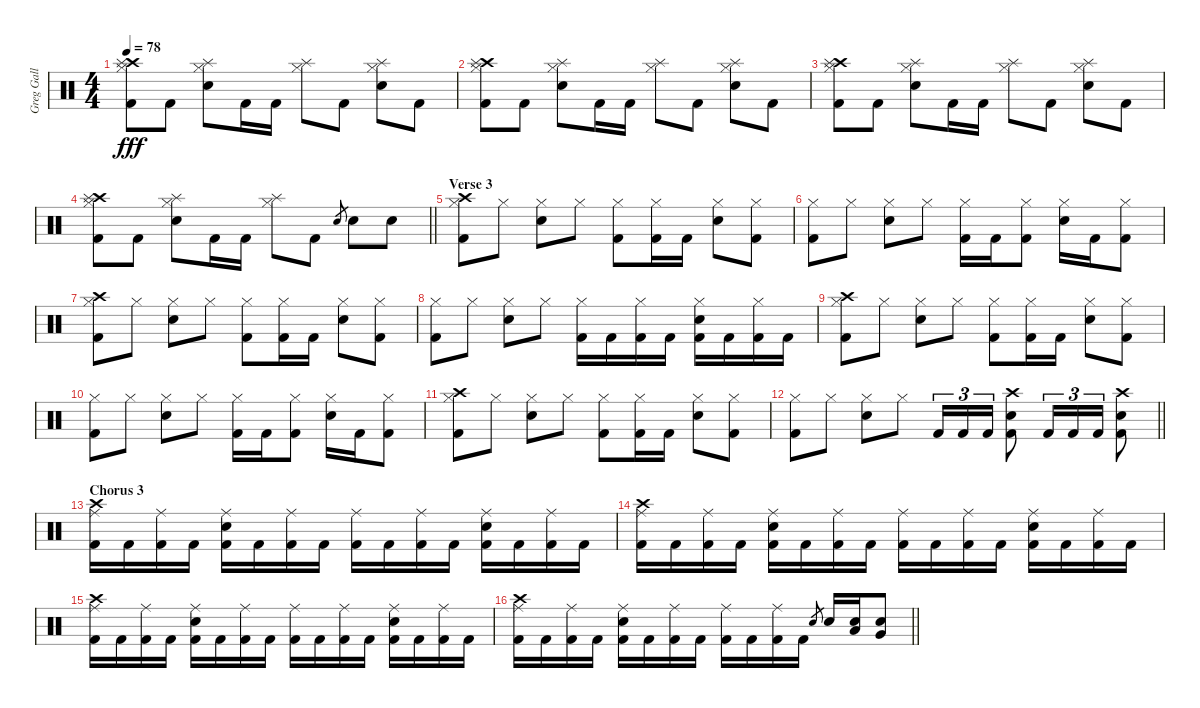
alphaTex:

\track ("Greg Gall" "Greg Gall") {instrument percussion}
\staff {score}
\articulation defaults
\ts (4 4)
\tempo 78
\clef neutral
\ks c
("Crash high (hit)" "Splash (hit)" "Hi-Hat (closed)" "Kick (hit) 2").8{dy fff} "Kick (hit) 2".8 ("Splash (hit)" "Hi-Hat (closed)" "Electric Snare (hit)").8 "Kick (hit) 2".16 "Kick (hit) 2".16 ("Splash (hit)" "Hi-Hat (closed)").8 "Kick (hit) 2".8 ("Splash (hit)" "Hi-Hat (closed)" "Electric Snare (hit)").8 "Kick (hit) 2".8 |
("Crash high (hit)" "Splash (hit)" "Hi-Hat (closed)" "Kick (hit) 2").8 "Kick (hit) 2".8 ("Splash (hit)" "Hi-Hat (closed)" "Electric Snare (hit)").8 "Kick (hit) 2".16 "Kick (hit) 2".16 ("Splash (hit)" "Hi-Hat (closed)").8 "Kick (hit) 2".8 ("Splash (hit)" "Hi-Hat (closed)" "Electric Snare (hit)").8 "Kick (hit) 2".8 |
("Crash high (hit)" "Splash (hit)" "Hi-Hat (closed)" "Kick (hit) 2").8 "Kick (hit) 2".8 ("Splash (hit)" "Hi-Hat (closed)" "Electric Snare (hit)").8 "Kick (hit) 2".16 "Kick (hit) 2".16 ("Splash (hit)" "Hi-Hat (closed)").8 "Kick (hit) 2".8 ("Splash (hit)" "Hi-Hat (closed)" "Electric Snare (hit)").8 "Kick (hit) 2".8 |
\barLineRight lightlight
("Crash high (hit)" "Splash (hit)" "Hi-Hat (closed)" "Kick (hit) 2").8 "Kick (hit) 2".8 ("Splash (hit)" "Hi-Hat (closed)" "Electric Snare (hit)").8 "Kick (hit) 2".16 "Kick (hit) 2".16 ("Splash (hit)" "Hi-Hat (closed)").8 "Kick (hit) 2".8 "Electric Snare (hit)".8{gr} "Electric Snare (hit)".8 "Electric Snare (hit)".8 |
\section ("" "Verse 3")
("Crash high (hit)" "Hi-Hat (closed)" "Kick (hit) 2").8 "Hi-Hat (closed)".8 ("Hi-Hat (closed)" "Electric Snare (hit)").8 "Hi-Hat (closed)".8 ("Hi-Hat (closed)" "Kick (hit) 2").8 ("Hi-Hat (closed)" "Kick (hit) 2").16 "Kick (hit) 2".16 ("Hi-Hat (closed)" "Electric Snare (hit)").8 ("Hi-Hat (closed)" "Kick (hit) 2").8 |
("Hi-Hat (closed)" "Kick (hit) 2").8 "Hi-Hat (closed)".8 ("Hi-Hat (closed)" "Electric Snare (hit)").8 "Hi-Hat (closed)".8 ("Hi-Hat (closed)" "Kick (hit) 2").16 "Kick (hit) 2".16 ("Hi-Hat (closed)" "Kick (hit) 2").8 ("Hi-Hat (closed)" "Electric Snare (hit)").16 "Kick (hit) 2".16 ("Hi-Hat (closed)" "Kick (hit) 2").8 |
("Crash high (hit)" "Hi-Hat (closed)" "Kick (hit) 2").8 "Hi-Hat (closed)".8 ("Hi-Hat (closed)" "Electric Snare (hit)").8 "Hi-Hat (closed)".8 ("Hi-Hat (closed)" "Kick (hit) 2").8 ("Hi-Hat (closed)" "Kick (hit) 2").16 "Kick (hit) 2".16 ("Hi-Hat (closed)" "Electric Snare (hit)").8 ("Hi-Hat (closed)" "Kick (hit) 2").8 |
("Hi-Hat (closed)" "Kick (hit) 2").8 "Hi-Hat (closed)".8 ("Hi-Hat (closed)" "Electric Snare (hit)").8 "Hi-Hat (closed)".8 ("Hi-Hat (closed)" "Kick (hit) 2").16 "Kick (hit) 2".16 ("Hi-Hat (closed)" "Kick (hit) 2").16 "Kick (hit) 2".16 ("Hi-Hat (closed)" "Electric Snare (hit)" "Kick (hit) 2").16 "Kick (hit) 2".16 ("Hi-Hat (closed)" "Kick (hit) 2").16 "Kick (hit) 2".16 |
("Crash high (hit)" "Hi-Hat (closed)" "Kick (hit) 2").8 "Hi-Hat (closed)".8 ("Hi-Hat (closed)" "Electric Snare (hit)").8 "Hi-Hat (closed)".8 ("Hi-Hat (closed)" "Kick (hit) 2").8 ("Hi-Hat (closed)" "Kick (hit) 2").16 "Kick (hit) 2".16 ("Hi-Hat (closed)" "Electric Snare (hit)").8 ("Hi-Hat (closed)" "Kick (hit) 2").8 |
("Hi-Hat (closed)" "Kick (hit) 2").8 "Hi-Hat (closed)".8 ("Hi-Hat (closed)" "Electric Snare (hit)").8 "Hi-Hat (closed)".8 ("Hi-Hat (closed)" "Kick (hit) 2").16 "Kick (hit) 2".16 ("Hi-Hat (closed)" "Kick (hit) 2").8 ("Hi-Hat (closed)" "Electric Snare (hit)").16 "Kick (hit) 2".16 ("Hi-Hat (closed)" "Kick (hit) 2").8 |
("Crash high (hit)" "Hi-Hat (closed)" "Kick (hit) 2").8 "Hi-Hat (closed)".8 ("Hi-Hat (closed)" "Electric Snare (hit)").8 "Hi-Hat (closed)".8 ("Hi-Hat (closed)" "Kick (hit) 2").8 ("Hi-Hat (closed)" "Kick (hit) 2").16 "Kick (hit) 2".16 ("Hi-Hat (closed)" "Electric Snare (hit)").8 ("Hi-Hat (closed)" "Kick (hit) 2").8 |
\barLineRight lightlight
("Hi-Hat (closed)" "Kick (hit) 2").8 "Hi-Hat (closed)".8 ("Hi-Hat (closed)" "Electric Snare (hit)").8 "Hi-Hat (closed)".8 "Kick (hit) 2".16{tu (3 2)} "Kick (hit) 2".16{tu (3 2)} "Kick (hit) 2".16{tu (3 2)} ("Crash high (hit)" "Electric Snare (hit)" "Kick (hit) 2").8 "Kick (hit) 2".16{tu (3 2)} "Kick (hit) 2".16{tu (3 2)} "Kick (hit) 2".16{tu (3 2)} ("Crash high (hit)" "Electric Snare (hit)" "Kick (hit) 2").8 |
\section ("" "Chorus 3")
("Crash high (hit)" "Ride (middle)" "Kick (hit) 2").16 "Kick (hit) 2".16 ("Ride (middle)" "Kick (hit) 2").16 "Kick (hit) 2".16 ("Ride (middle)" "Electric Snare (hit)" "Kick (hit) 2").16 "Kick (hit) 2".16 ("Ride (middle)" "Kick (hit) 2").16 "Kick (hit) 2".16 ("Ride (middle)" "Kick (hit) 2").16 "Kick (hit) 2".16 ("Ride (middle)" "Kick (hit) 2").16 "Kick (hit) 2".16 ("Ride (middle)" "Electric Snare (hit)" "Kick (hit) 2").16 "Kick (hit) 2".16 ("Ride (middle)" "Kick (hit) 2").16 "Kick (hit) 2".16 |
("Crash high (hit)" "Ride (middle)" "Kick (hit) 2").16 "Kick (hit) 2".16 ("Ride (middle)" "Kick (hit) 2").16 "Kick (hit) 2".16 ("Ride (middle)" "Electric Snare (hit)" "Kick (hit) 2").16 "Kick (hit) 2".16 ("Ride (middle)" "Kick (hit) 2").16 "Kick (hit) 2".16 ("Ride (middle)" "Kick (hit) 2").16 "Kick (hit) 2".16 ("Ride (middle)" "Kick (hit) 2").16 "Kick (hit) 2".16 ("Ride (middle)" "Electric Snare (hit)" "Kick (hit) 2").16 "Kick (hit) 2".16 ("Ride (middle)" "Kick (hit) 2").16 "Kick (hit) 2".16 |
("Crash high (hit)" "Ride (middle)" "Kick (hit) 2").16 "Kick (hit) 2".16 ("Ride (middle)" "Kick (hit) 2").16 "Kick (hit) 2".16 ("Ride (middle)" "Electric Snare (hit)" "Kick (hit) 2").16 "Kick (hit) 2".16 ("Ride (middle)" "Kick (hit) 2").16 "Kick (hit) 2".16 ("Ride (middle)" "Kick (hit) 2").16 "Kick (hit) 2".16 ("Ride (middle)" "Kick (hit) 2").16 "Kick (hit) 2".16 ("Ride (middle)" "Electric Snare (hit)" "Kick (hit) 2").16 "Kick (hit) 2".16 ("Ride (middle)" "Kick (hit) 2").16 "Kick (hit) 2".16 |
\barLineRight lightlight
("Crash high (hit)" "Ride (middle)" "Kick (hit) 2").16 "Kick (hit) 2".16 ("Ride (middle)" "Kick (hit) 2").16 "Kick (hit) 2".16 ("Ride (middle)" "Electric Snare (hit)" "Kick (hit) 2").16 "Kick (hit) 2".16 ("Ride (middle)" "Kick (hit) 2").16 "Kick (hit) 2".16 ("Ride (middle)" "Kick (hit) 2").16 "Kick (hit) 2".16 ("Ride (middle)" "Kick (hit) 2").16 "Kick (hit) 2".16 "Electric Snare (hit)".8{gr} "Electric Snare (hit)".16 ("Low Tom (hit)" "Electric Snare (hit)").16 ("Very Low Tom (hit)" "Electric Snare (hit)").8
